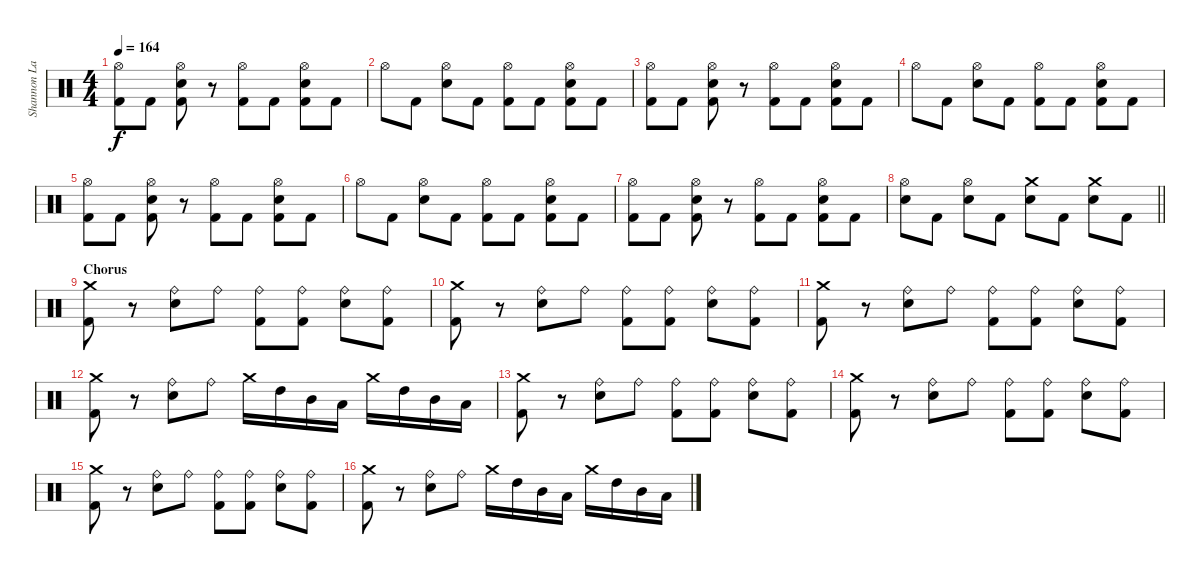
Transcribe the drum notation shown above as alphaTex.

\track ("Shannon Larkin" "Shannon La") {instrument percussion}
\staff {score}
\articulation defaults
\ts (4 4)
\tempo 164
\clef neutral
\ks c
("Hi-Hat (open)" "Kick (hit) 2").8{dy f} "Kick (hit) 2".8 ("Hi-Hat (open)" "Electric Snare (hit)" "Kick (hit) 2").8 r.8 ("Hi-Hat (open)" "Kick (hit) 2").8 "Kick (hit) 2".8 ("Hi-Hat (open)" "Electric Snare (hit)" "Kick (hit) 2").8 "Kick (hit) 2".8 |
"Hi-Hat (open)".8 "Kick (hit) 2".8 ("Hi-Hat (open)" "Electric Snare (hit)").8 "Kick (hit) 2".8 ("Hi-Hat (open)" "Kick (hit) 2").8 "Kick (hit) 2".8 ("Hi-Hat (open)" "Electric Snare (hit)" "Kick (hit) 2").8 "Kick (hit) 2".8 |
("Hi-Hat (open)" "Kick (hit) 2").8 "Kick (hit) 2".8 ("Hi-Hat (open)" "Electric Snare (hit)" "Kick (hit) 2").8 r.8 ("Hi-Hat (open)" "Kick (hit) 2").8 "Kick (hit) 2".8 ("Hi-Hat (open)" "Electric Snare (hit)" "Kick (hit) 2").8 "Kick (hit) 2".8 |
"Hi-Hat (open)".8 "Kick (hit) 2".8 ("Hi-Hat (open)" "Electric Snare (hit)").8 "Kick (hit) 2".8 ("Hi-Hat (open)" "Kick (hit) 2").8 "Kick (hit) 2".8 ("Hi-Hat (open)" "Electric Snare (hit)" "Kick (hit) 2").8 "Kick (hit) 2".8 |
("Hi-Hat (open)" "Kick (hit) 2").8 "Kick (hit) 2".8 ("Hi-Hat (open)" "Electric Snare (hit)" "Kick (hit) 2").8 r.8 ("Hi-Hat (open)" "Kick (hit) 2").8 "Kick (hit) 2".8 ("Hi-Hat (open)" "Electric Snare (hit)" "Kick (hit) 2").8 "Kick (hit) 2".8 |
"Hi-Hat (open)".8 "Kick (hit) 2".8 ("Hi-Hat (open)" "Electric Snare (hit)").8 "Kick (hit) 2".8 ("Hi-Hat (open)" "Kick (hit) 2").8 "Kick (hit) 2".8 ("Hi-Hat (open)" "Electric Snare (hit)" "Kick (hit) 2").8 "Kick (hit) 2".8 |
("Hi-Hat (open)" "Kick (hit) 2").8 "Kick (hit) 2".8 ("Hi-Hat (open)" "Electric Snare (hit)" "Kick (hit) 2").8 r.8 ("Hi-Hat (open)" "Kick (hit) 2").8 "Kick (hit) 2".8 ("Hi-Hat (open)" "Electric Snare (hit)" "Kick (hit) 2").8 "Kick (hit) 2".8 |
\barLineRight lightlight
("Hi-Hat (open)" "Electric Snare (hit)").8 "Kick (hit) 2".8 ("Hi-Hat (open)" "Electric Snare (hit)").8 "Kick (hit) 2".8 ("Crash medium (hit)" "Electric Snare (hit)").8 "Kick (hit) 2".8 ("Crash medium (hit)" "Electric Snare (hit)").8 "Kick (hit) 2".8 |
\section ("" "Chorus")
("Crash medium (hit)" "Kick (hit) 2").8 r.8 ("Ride (bell)" "Electric Snare (hit)").8 "Ride (bell)".8 ("Ride (bell)" "Kick (hit) 2").8 ("Ride (bell)" "Kick (hit) 2").8 ("Ride (bell)" "Electric Snare (hit)").8 ("Ride (bell)" "Kick (hit) 2").8 |
("Crash medium (hit)" "Kick (hit) 2").8 r.8 ("Ride (bell)" "Electric Snare (hit)").8 "Ride (bell)".8 ("Ride (bell)" "Kick (hit) 2").8 ("Ride (bell)" "Kick (hit) 2").8 ("Ride (bell)" "Electric Snare (hit)").8 ("Ride (bell)" "Kick (hit) 2").8 |
("Crash medium (hit)" "Kick (hit) 2").8 r.8 ("Ride (bell)" "Electric Snare (hit)").8 "Ride (bell)".8 ("Ride (bell)" "Kick (hit) 2").8 ("Ride (bell)" "Kick (hit) 2").8 ("Ride (bell)" "Electric Snare (hit)").8 ("Ride (bell)" "Kick (hit) 2").8 |
("Crash medium (hit)" "Kick (hit) 2").8 r.8 ("Ride (bell)" "Electric Snare (hit)").8 "Ride (bell)".8 "Crash medium (hit)".16 "High Tom (hit)".16 "Mid Tom (hit)".16 "Low Tom (hit)".16 "Crash medium (hit)".16 "High Tom (hit)".16 "Mid Tom (hit)".16 "Low Tom (hit)".16 |
("Crash medium (hit)" "Kick (hit) 2").8 r.8 ("Ride (bell)" "Electric Snare (hit)").8 "Ride (bell)".8 ("Ride (bell)" "Kick (hit) 2").8 ("Ride (bell)" "Kick (hit) 2").8 ("Ride (bell)" "Electric Snare (hit)").8 ("Ride (bell)" "Kick (hit) 2").8 |
("Crash medium (hit)" "Kick (hit) 2").8 r.8 ("Ride (bell)" "Electric Snare (hit)").8 "Ride (bell)".8 ("Ride (bell)" "Kick (hit) 2").8 ("Ride (bell)" "Kick (hit) 2").8 ("Ride (bell)" "Electric Snare (hit)").8 ("Ride (bell)" "Kick (hit) 2").8 |
("Crash medium (hit)" "Kick (hit) 2").8 r.8 ("Ride (bell)" "Electric Snare (hit)").8 "Ride (bell)".8 ("Ride (bell)" "Kick (hit) 2").8 ("Ride (bell)" "Kick (hit) 2").8 ("Ride (bell)" "Electric Snare (hit)").8 ("Ride (bell)" "Kick (hit) 2").8 |
("Crash medium (hit)" "Kick (hit) 2").8 r.8 ("Ride (bell)" "Electric Snare (hit)").8 "Ride (bell)".8 "Crash medium (hit)".16 "High Tom (hit)".16 "Mid Tom (hit)".16 "Low Tom (hit)".16 "Crash medium (hit)".16 "High Tom (hit)".16 "Mid Tom (hit)".16 "Low Tom (hit)".16
